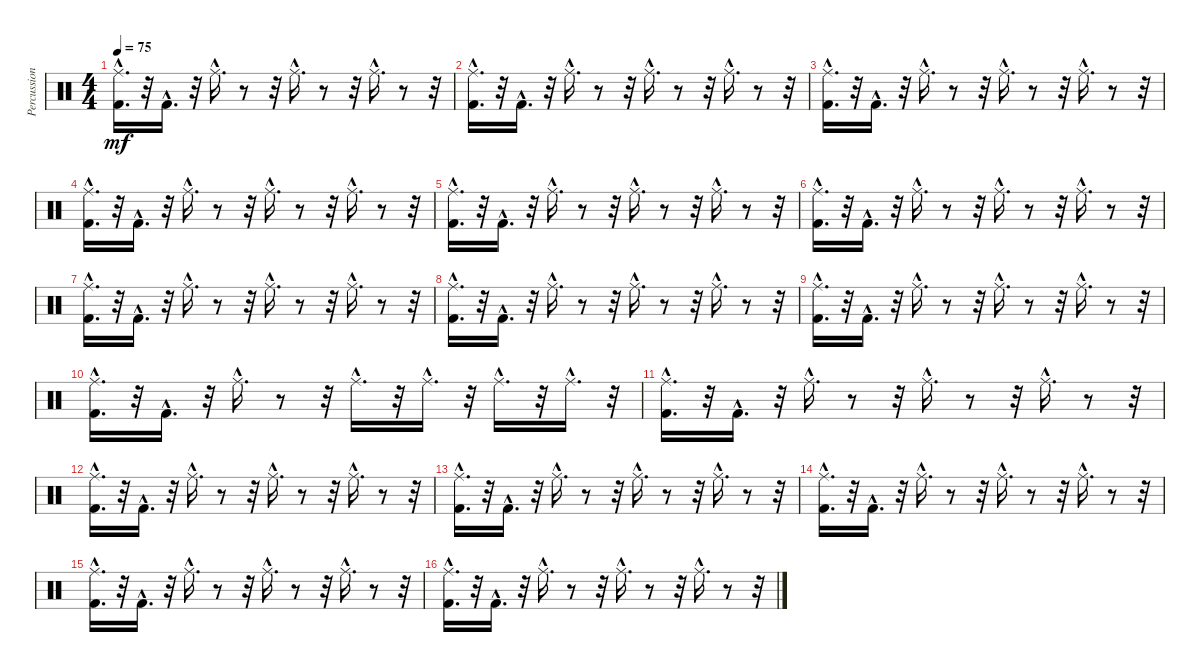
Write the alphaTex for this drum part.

\track ("Percussion" "Percussion") {instrument percussion}
\staff {score}
\articulation defaults
\ts (4 4)
\tempo 75
\clef neutral
\ks c
("Ride (middle)"{hac} "Kick (hit) 2"{hac}).16{d dy mf} r.32 "Kick (hit) 2"{hac}.16{d} r.32 "Ride (middle)"{hac}.16{d} r.8 r.32 "Ride (middle)"{hac}.16{d} r.8 r.32 "Ride (middle)"{hac}.16{d} r.8 r.32 |
("Ride (middle)"{hac} "Kick (hit) 2"{hac}).16{d} r.32 "Kick (hit) 2"{hac}.16{d} r.32 "Ride (middle)"{hac}.16{d} r.8 r.32 "Ride (middle)"{hac}.16{d} r.8 r.32 "Ride (middle)"{hac}.16{d} r.8 r.32 |
("Kick (hit) 2"{hac} "Ride (middle)"{hac}).16{d} r.32 "Kick (hit) 2"{hac}.16{d} r.32 "Ride (middle)"{hac}.16{d} r.8 r.32 "Ride (middle)"{hac}.16{d} r.8 r.32 "Ride (middle)"{hac}.16{d} r.8 r.32 |
("Kick (hit) 2"{hac} "Ride (middle)"{hac}).16{d} r.32 "Kick (hit) 2"{hac}.16{d} r.32 "Ride (middle)"{hac}.16{d} r.8 r.32 "Ride (middle)"{hac}.16{d} r.8 r.32 "Ride (middle)"{hac}.16{d} r.8 r.32 |
("Kick (hit) 2"{hac} "Ride (middle)"{hac}).16{d} r.32 "Kick (hit) 2"{hac}.16{d} r.32 "Ride (middle)"{hac}.16{d} r.8 r.32 "Ride (middle)"{hac}.16{d} r.8 r.32 "Ride (middle)"{hac}.16{d} r.8 r.32 |
("Kick (hit) 2"{hac} "Ride (middle)"{hac}).16{d} r.32 "Kick (hit) 2"{hac}.16{d} r.32 "Ride (middle)"{hac}.16{d} r.8 r.32 "Ride (middle)"{hac}.16{d} r.8 r.32 "Ride (middle)"{hac}.16{d} r.8 r.32 |
("Ride (middle)"{hac} "Kick (hit) 2"{hac}).16{d} r.32 "Kick (hit) 2"{hac}.16{d} r.32 "Ride (middle)"{hac}.16{d} r.8 r.32 "Ride (middle)"{hac}.16{d} r.8 r.32 "Ride (middle)"{hac}.16{d} r.8 r.32 |
("Ride (middle)"{hac} "Kick (hit) 2"{hac}).16{d} r.32 "Kick (hit) 2"{hac}.16{d} r.32 "Ride (middle)"{hac}.16{d} r.8 r.32 "Ride (middle)"{hac}.16{d} r.8 r.32 "Ride (middle)"{hac}.16{d} r.8 r.32 |
("Kick (hit) 2"{hac} "Ride (middle)"{hac}).16{d} r.32 "Kick (hit) 2"{hac}.16{d} r.32 "Ride (middle)"{hac}.16{d} r.8 r.32 "Ride (middle)"{hac}.16{d} r.8 r.32 "Ride (middle)"{hac}.16{d} r.8 r.32 |
("Ride (middle)"{hac} "Kick (hit) 2"{hac}).16{d} r.32 "Kick (hit) 2"{hac}.16{d} r.32 "Ride (middle)"{hac}.16{d} r.8 r.32 "Ride (middle)"{hac}.16{d} r.32 "Ride (middle)"{hac}.16{d} r.32 "Ride (middle)"{hac}.16{d} r.32 "Ride (middle)"{hac}.16{d} r.32 |
("Ride (middle)"{hac} "Kick (hit) 2"{hac}).16{d} r.32 "Kick (hit) 2"{hac}.16{d} r.32 "Ride (middle)"{hac}.16{d} r.8 r.32 "Ride (middle)"{hac}.16{d} r.8 r.32 "Ride (middle)"{hac}.16{d} r.8 r.32 |
("Kick (hit) 2"{hac} "Ride (middle)"{hac}).16{d} r.32 "Kick (hit) 2"{hac}.16{d} r.32 "Ride (middle)"{hac}.16{d} r.8 r.32 "Ride (middle)"{hac}.16{d} r.8 r.32 "Ride (middle)"{hac}.16{d} r.8 r.32 |
("Ride (middle)"{hac} "Kick (hit) 2"{hac}).16{d} r.32 "Kick (hit) 2"{hac}.16{d} r.32 "Ride (middle)"{hac}.16{d} r.8 r.32 "Ride (middle)"{hac}.16{d} r.8 r.32 "Ride (middle)"{hac}.16{d} r.8 r.32 |
("Ride (middle)"{hac} "Kick (hit) 2"{hac}).16{d} r.32 "Kick (hit) 2"{hac}.16{d} r.32 "Ride (middle)"{hac}.16{d} r.8 r.32 "Ride (middle)"{hac}.16{d} r.8 r.32 "Ride (middle)"{hac}.16{d} r.8 r.32 |
("Kick (hit) 2"{hac} "Ride (middle)"{hac}).16{d} r.32 "Kick (hit) 2"{hac}.16{d} r.32 "Ride (middle)"{hac}.16{d} r.8 r.32 "Ride (middle)"{hac}.16{d} r.8 r.32 "Ride (middle)"{hac}.16{d} r.8 r.32 |
("Ride (middle)"{hac} "Kick (hit) 2"{hac}).16{d} r.32 "Kick (hit) 2"{hac}.16{d} r.32 "Ride (middle)"{hac}.16{d} r.8 r.32 "Ride (middle)"{hac}.16{d} r.8 r.32 "Ride (middle)"{hac}.16{d} r.8 r.32
